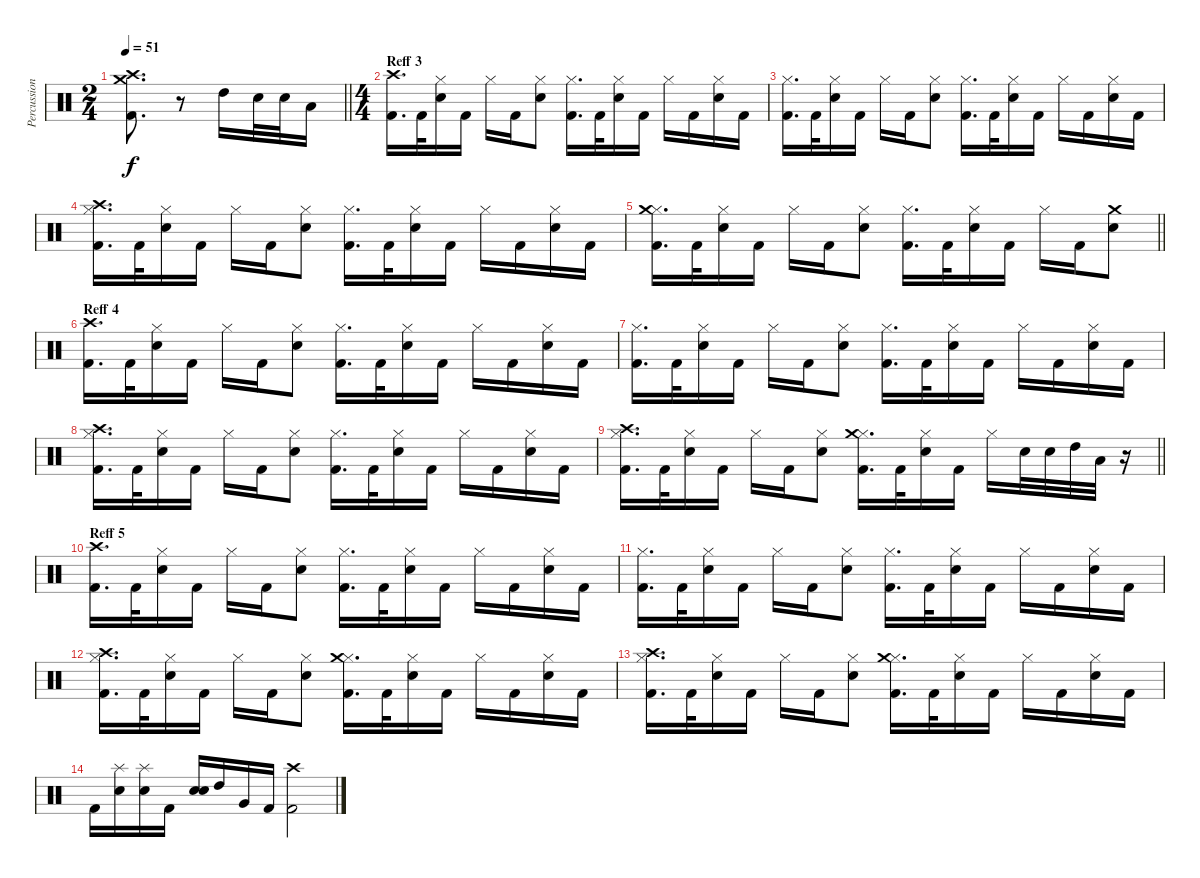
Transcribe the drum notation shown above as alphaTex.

\track ("Percussion 1" "Percussion") {instrument percussion}
\staff {score}
\articulation defaults
\ts (2 4)
\tempo 51
\clef neutral
\barLineRight lightlight
\ks c
("Crash high (hit)" "Crash medium (hit)" "Kick (hit) 2").8{d dy f} r.8 "High Tom (hit)".16 "Electric Snare (hit)".32 "Electric Snare (hit)".32 "Low Tom (hit)".16 |
\ts (4 4)
\section ("" "Reff 3")
("Crash high (hit)" "Kick (hit) 2").16{d} "Kick (hit) 2".32 ("Hi-Hat (closed)" "Electric Snare (hit)").16 "Kick (hit) 2".16 "Hi-Hat (closed)".16 "Kick (hit) 2".16 ("Hi-Hat (closed)" "Electric Snare (hit)").8 ("Hi-Hat (closed)" "Kick (hit) 2").16{d} "Kick (hit) 2".32 ("Hi-Hat (closed)" "Electric Snare (hit)").16 "Kick (hit) 2".16 "Hi-Hat (closed)".16 "Kick (hit) 2".16 ("Hi-Hat (closed)" "Electric Snare (hit)").16 "Kick (hit) 2".16 |
("Hi-Hat (closed)" "Kick (hit) 2").16{d} "Kick (hit) 2".32 ("Hi-Hat (closed)" "Electric Snare (hit)").16 "Kick (hit) 2".16 "Hi-Hat (closed)".16 "Kick (hit) 2".16 ("Hi-Hat (closed)" "Electric Snare (hit)").8 ("Hi-Hat (closed)" "Kick (hit) 2").16{d} "Kick (hit) 2".32 ("Hi-Hat (closed)" "Electric Snare (hit)").16 "Kick (hit) 2".16 "Hi-Hat (closed)".16 "Kick (hit) 2".16 ("Hi-Hat (closed)" "Electric Snare (hit)").16 "Kick (hit) 2".16 |
("Hi-Hat (closed)" "Crash high (hit)" "Kick (hit) 2").16{d} "Kick (hit) 2".32 ("Hi-Hat (closed)" "Electric Snare (hit)").16 "Kick (hit) 2".16 "Hi-Hat (closed)".16 "Kick (hit) 2".16 ("Hi-Hat (closed)" "Electric Snare (hit)").8 ("Hi-Hat (closed)" "Kick (hit) 2").16{d} "Kick (hit) 2".32 ("Hi-Hat (closed)" "Electric Snare (hit)").16 "Kick (hit) 2".16 "Hi-Hat (closed)".16 "Kick (hit) 2".16 ("Hi-Hat (closed)" "Electric Snare (hit)").16 "Kick (hit) 2".16 |
\barLineRight lightlight
("Hi-Hat (closed)" "Crash medium (hit)" "Kick (hit) 2").16{d} "Kick (hit) 2".32 ("Hi-Hat (closed)" "Electric Snare (hit)").16 "Kick (hit) 2".16 "Hi-Hat (closed)".16 "Kick (hit) 2".16 ("Hi-Hat (closed)" "Electric Snare (hit)").8 ("Hi-Hat (closed)" "Kick (hit) 2").16{d} "Kick (hit) 2".32 ("Hi-Hat (closed)" "Electric Snare (hit)").16 "Kick (hit) 2".16 "Hi-Hat (closed)".16 "Kick (hit) 2".16 ("Electric Snare (hit)" "Crash medium (hit)").8 |
\section ("" "Reff 4")
("Crash high (hit)" "Kick (hit) 2").16{d} "Kick (hit) 2".32 ("Hi-Hat (closed)" "Electric Snare (hit)").16 "Kick (hit) 2".16 "Hi-Hat (closed)".16 "Kick (hit) 2".16 ("Hi-Hat (closed)" "Electric Snare (hit)").8 ("Hi-Hat (closed)" "Kick (hit) 2").16{d} "Kick (hit) 2".32 ("Hi-Hat (closed)" "Electric Snare (hit)").16 "Kick (hit) 2".16 "Hi-Hat (closed)".16 "Kick (hit) 2".16 ("Hi-Hat (closed)" "Electric Snare (hit)").16 "Kick (hit) 2".16 |
("Hi-Hat (closed)" "Kick (hit) 2").16{d} "Kick (hit) 2".32 ("Hi-Hat (closed)" "Electric Snare (hit)").16 "Kick (hit) 2".16 "Hi-Hat (closed)".16 "Kick (hit) 2".16 ("Hi-Hat (closed)" "Electric Snare (hit)").8 ("Hi-Hat (closed)" "Kick (hit) 2").16{d} "Kick (hit) 2".32 ("Hi-Hat (closed)" "Electric Snare (hit)").16 "Kick (hit) 2".16 "Hi-Hat (closed)".16 "Kick (hit) 2".16 ("Hi-Hat (closed)" "Electric Snare (hit)").16 "Kick (hit) 2".16 |
("Hi-Hat (closed)" "Crash high (hit)" "Kick (hit) 2").16{d} "Kick (hit) 2".32 ("Hi-Hat (closed)" "Electric Snare (hit)").16 "Kick (hit) 2".16 "Hi-Hat (closed)".16 "Kick (hit) 2".16 ("Hi-Hat (closed)" "Electric Snare (hit)").8 ("Hi-Hat (closed)" "Kick (hit) 2").16{d} "Kick (hit) 2".32 ("Hi-Hat (closed)" "Electric Snare (hit)").16 "Kick (hit) 2".16 "Hi-Hat (closed)".16 "Kick (hit) 2".16 ("Hi-Hat (closed)" "Electric Snare (hit)").16 "Kick (hit) 2".16 |
\barLineRight lightlight
("Hi-Hat (closed)" "Crash high (hit)" "Kick (hit) 2").16{d} "Kick (hit) 2".32 ("Hi-Hat (closed)" "Electric Snare (hit)").16 "Kick (hit) 2".16 "Hi-Hat (closed)".16 "Kick (hit) 2".16 ("Hi-Hat (closed)" "Electric Snare (hit)").8 ("Hi-Hat (closed)" "Crash medium (hit)" "Kick (hit) 2").16{d} "Kick (hit) 2".32 ("Hi-Hat (closed)" "Electric Snare (hit)").16 "Kick (hit) 2".16 "Hi-Hat (closed)".16 "Electric Snare (hit)".32 "Electric Snare (hit)".32 "High Tom (hit)".32 "Low Tom (hit)".32 r.16 |
\section ("" "Reff 5")
("Crash high (hit)" "Kick (hit) 2").16{d} "Kick (hit) 2".32 ("Hi-Hat (closed)" "Electric Snare (hit)").16 "Kick (hit) 2".16 "Hi-Hat (closed)".16 "Kick (hit) 2".16 ("Hi-Hat (closed)" "Electric Snare (hit)").8 ("Hi-Hat (closed)" "Kick (hit) 2").16{d} "Kick (hit) 2".32 ("Hi-Hat (closed)" "Electric Snare (hit)").16 "Kick (hit) 2".16 "Hi-Hat (closed)".16 "Kick (hit) 2".16 ("Hi-Hat (closed)" "Electric Snare (hit)").16 "Kick (hit) 2".16 |
("Hi-Hat (closed)" "Kick (hit) 2").16{d} "Kick (hit) 2".32 ("Hi-Hat (closed)" "Electric Snare (hit)").16 "Kick (hit) 2".16 "Hi-Hat (closed)".16 "Kick (hit) 2".16 ("Hi-Hat (closed)" "Electric Snare (hit)").8 ("Hi-Hat (closed)" "Kick (hit) 2").16{d} "Kick (hit) 2".32 ("Hi-Hat (closed)" "Electric Snare (hit)").16 "Kick (hit) 2".16 "Hi-Hat (closed)".16 "Kick (hit) 2".16 ("Hi-Hat (closed)" "Electric Snare (hit)").16 "Kick (hit) 2".16 |
("Hi-Hat (closed)" "Crash high (hit)" "Kick (hit) 2").16{d} "Kick (hit) 2".32 ("Hi-Hat (closed)" "Electric Snare (hit)").16 "Kick (hit) 2".16 "Hi-Hat (closed)".16 "Kick (hit) 2".16 ("Hi-Hat (closed)" "Electric Snare (hit)").8 ("Hi-Hat (closed)" "Crash medium (hit)" "Kick (hit) 2").16{d} "Kick (hit) 2".32 ("Hi-Hat (closed)" "Electric Snare (hit)").16 "Kick (hit) 2".16 "Hi-Hat (closed)".16 "Kick (hit) 2".16 ("Hi-Hat (closed)" "Electric Snare (hit)").16 "Kick (hit) 2".16 |
("Hi-Hat (closed)" "Crash high (hit)" "Kick (hit) 2").16{d} "Kick (hit) 2".32 ("Hi-Hat (closed)" "Electric Snare (hit)").16 "Kick (hit) 2".16 "Hi-Hat (closed)".16 "Kick (hit) 2".16 ("Hi-Hat (closed)" "Electric Snare (hit)").8 ("Hi-Hat (closed)" "Crash medium (hit)" "Kick (hit) 2").16{d} "Kick (hit) 2".32 ("Hi-Hat (closed)" "Electric Snare (hit)").16 "Kick (hit) 2".16 "Hi-Hat (closed)".16 "Kick (hit) 2".16 ("Hi-Hat (closed)" "Electric Snare (hit)").16 "Kick (hit) 2".16 |
"Kick (hit) 2".16 ("Splash (hit)" "Electric Snare (hit)").16 ("Splash (hit)" "Electric Snare (hit)").16 "Kick (hit) 2".16 ("Electric Snare (hit)" "Electric Snare (hit)").16{bd 60} "High Tom (hit)".16 "Very Low Tom (hit)".16 "Kick (hit) 2".16 ("Crash high (hit)" "Kick (hit) 2").2
